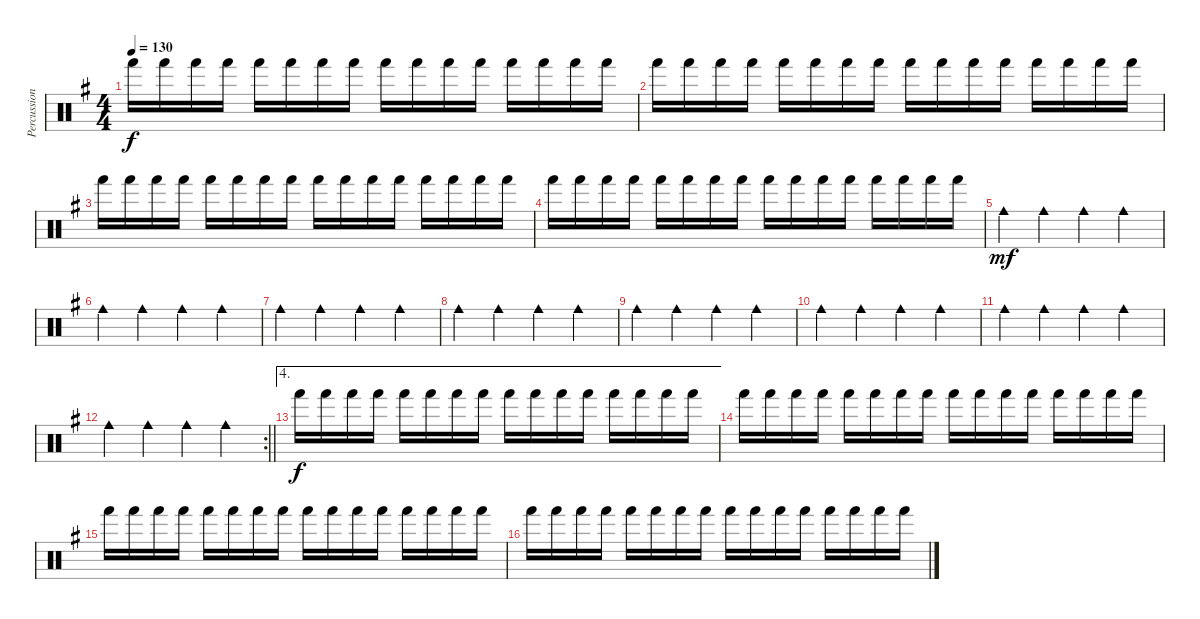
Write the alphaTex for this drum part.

\track ("Percussion" "Percussion") {instrument percussion}
\staff {score}
\articulation defaults
\ts (4 4)
\tempo 130
\clef neutral
\ks g "Hand (hit)".16{dy f} "Hand (hit)".16 "Hand (hit)".16 "Hand (hit)".16 "Hand (hit)".16 "Hand (hit)".16 "Hand (hit)".16 "Hand (hit)".16 "Hand (hit)".16 "Hand (hit)".16 "Hand (hit)".16 "Hand (hit)".16 "Hand (hit)".16 "Hand (hit)".16 "Hand (hit)".16 "Hand (hit)".16
|
"Hand (hit)".16 "Hand (hit)".16 "Hand (hit)".16 "Hand (hit)".16 "Hand (hit)".16 "Hand (hit)".16 "Hand (hit)".16 "Hand (hit)".16 "Hand (hit)".16 "Hand (hit)".16 "Hand (hit)".16 "Hand (hit)".16 "Hand (hit)".16 "Hand (hit)".16 "Hand (hit)".16 "Hand (hit)".16 |
"Hand (hit)".16 "Hand (hit)".16 "Hand (hit)".16 "Hand (hit)".16 "Hand (hit)".16 "Hand (hit)".16 "Hand (hit)".16 "Hand (hit)".16 "Hand (hit)".16 "Hand (hit)".16 "Hand (hit)".16 "Hand (hit)".16 "Hand (hit)".16 "Hand (hit)".16 "Hand (hit)".16 "Hand (hit)".16 |
"Hand (hit)".16 "Hand (hit)".16 "Hand (hit)".16 "Hand (hit)".16 "Hand (hit)".16 "Hand (hit)".16 "Hand (hit)".16 "Hand (hit)".16 "Hand (hit)".16 "Hand (hit)".16 "Hand (hit)".16 "Hand (hit)".16 "Hand (hit)".16 "Hand (hit)".16 "Hand (hit)".16 "Hand (hit)".16 |
"Cowbell medium (hit)".4{dy mf} "Cowbell medium (hit)".4 "Cowbell medium (hit)".4 "Cowbell medium (hit)".4 |
"Cowbell medium (hit)".4 "Cowbell medium (hit)".4 "Cowbell medium (hit)".4 "Cowbell medium (hit)".4 |
"Cowbell medium (hit)".4 "Cowbell medium (hit)".4 "Cowbell medium (hit)".4 "Cowbell medium (hit)".4 |
"Cowbell medium (hit)".4 "Cowbell medium (hit)".4 "Cowbell medium (hit)".4 "Cowbell medium (hit)".4 |
"Cowbell medium (hit)".4 "Cowbell medium (hit)".4 "Cowbell medium (hit)".4 "Cowbell medium (hit)".4 |
"Cowbell medium (hit)".4 "Cowbell medium (hit)".4 "Cowbell medium (hit)".4 "Cowbell medium (hit)".4 |
"Cowbell medium (hit)".4 "Cowbell medium (hit)".4 "Cowbell medium (hit)".4 "Cowbell medium (hit)".4 |
\rc 2
\barLineRight lightlight "Cowbell medium (hit)".4 "Cowbell medium (hit)".4 "Cowbell medium (hit)".4 "Cowbell medium (hit)".4
|
\ae 4 "Hand (hit)".16{dy f} "Hand (hit)".16 "Hand (hit)".16 "Hand (hit)".16 "Hand (hit)".16 "Hand (hit)".16 "Hand (hit)".16 "Hand (hit)".16 "Hand (hit)".16 "Hand (hit)".16 "Hand (hit)".16 "Hand (hit)".16 "Hand (hit)".16 "Hand (hit)".16 "Hand (hit)".16 "Hand (hit)".16
|
"Hand (hit)".16 "Hand (hit)".16 "Hand (hit)".16 "Hand (hit)".16 "Hand (hit)".16 "Hand (hit)".16 "Hand (hit)".16 "Hand (hit)".16 "Hand (hit)".16 "Hand (hit)".16 "Hand (hit)".16 "Hand (hit)".16 "Hand (hit)".16 "Hand (hit)".16 "Hand (hit)".16 "Hand (hit)".16 |
"Hand (hit)".16 "Hand (hit)".16 "Hand (hit)".16 "Hand (hit)".16 "Hand (hit)".16 "Hand (hit)".16 "Hand (hit)".16 "Hand (hit)".16 "Hand (hit)".16 "Hand (hit)".16 "Hand (hit)".16 "Hand (hit)".16 "Hand (hit)".16 "Hand (hit)".16 "Hand (hit)".16 "Hand (hit)".16 |
"Hand (hit)".16 "Hand (hit)".16 "Hand (hit)".16 "Hand (hit)".16 "Hand (hit)".16 "Hand (hit)".16 "Hand (hit)".16 "Hand (hit)".16 "Hand (hit)".16 "Hand (hit)".16 "Hand (hit)".16 "Hand (hit)".16 "Hand (hit)".16 "Hand (hit)".16 "Hand (hit)".16 "Hand (hit)".16
